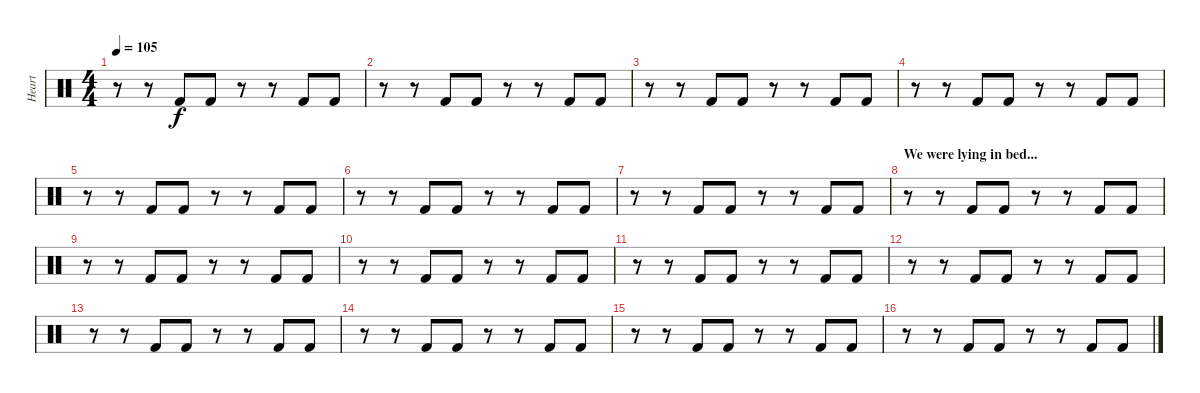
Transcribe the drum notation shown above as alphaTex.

\track ("Heart" "Heart") {instrument percussion}
\staff {score}
\articulation defaults
\ts (4 4)
\tempo 105
\clef neutral
\ks c
r.8{dy f} r.8 "Kick (hit) 2".8 "Kick (hit) 2".8 r.8 r.8 "Kick (hit) 2".8 "Kick (hit) 2".8 |
r.8 r.8 "Kick (hit) 2".8 "Kick (hit) 2".8 r.8 r.8 "Kick (hit) 2".8 "Kick (hit) 2".8 |
r.8 r.8 "Kick (hit) 2".8 "Kick (hit) 2".8 r.8 r.8 "Kick (hit) 2".8 "Kick (hit) 2".8 |
r.8 r.8 "Kick (hit) 2".8 "Kick (hit) 2".8 r.8 r.8 "Kick (hit) 2".8 "Kick (hit) 2".8 |
r.8 r.8 "Kick (hit) 2".8 "Kick (hit) 2".8 r.8 r.8 "Kick (hit) 2".8 "Kick (hit) 2".8 |
r.8 r.8 "Kick (hit) 2".8 "Kick (hit) 2".8 r.8 r.8 "Kick (hit) 2".8 "Kick (hit) 2".8 |
r.8 r.8 "Kick (hit) 2".8 "Kick (hit) 2".8 r.8 r.8 "Kick (hit) 2".8 "Kick (hit) 2".8 |
\section ("" "We were lying in bed...")
r.8 r.8 "Kick (hit) 2".8 "Kick (hit) 2".8 r.8 r.8 "Kick (hit) 2".8 "Kick (hit) 2".8 |
r.8 r.8 "Kick (hit) 2".8 "Kick (hit) 2".8 r.8 r.8 "Kick (hit) 2".8 "Kick (hit) 2".8 |
r.8 r.8 "Kick (hit) 2".8 "Kick (hit) 2".8 r.8 r.8 "Kick (hit) 2".8 "Kick (hit) 2".8 |
r.8 r.8 "Kick (hit) 2".8 "Kick (hit) 2".8 r.8 r.8 "Kick (hit) 2".8 "Kick (hit) 2".8 |
r.8 r.8 "Kick (hit) 2".8 "Kick (hit) 2".8 r.8 r.8 "Kick (hit) 2".8 "Kick (hit) 2".8 |
r.8 r.8 "Kick (hit) 2".8 "Kick (hit) 2".8 r.8 r.8 "Kick (hit) 2".8 "Kick (hit) 2".8 |
r.8 r.8 "Kick (hit) 2".8 "Kick (hit) 2".8 r.8 r.8 "Kick (hit) 2".8 "Kick (hit) 2".8 |
r.8 r.8 "Kick (hit) 2".8 "Kick (hit) 2".8 r.8 r.8 "Kick (hit) 2".8 "Kick (hit) 2".8 |
r.8 r.8 "Kick (hit) 2".8 "Kick (hit) 2".8 r.8 r.8 "Kick (hit) 2".8 "Kick (hit) 2".8
